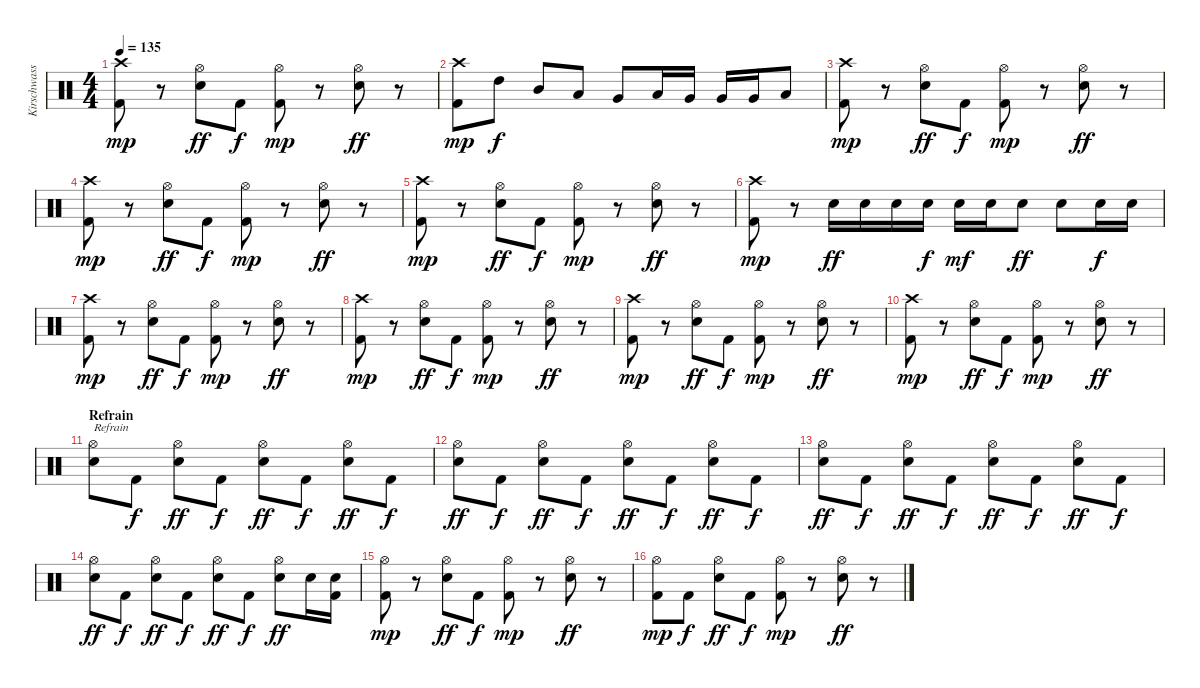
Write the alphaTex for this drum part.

\track ("Kirschwasserkönig" "Kirschwass") {instrument percussion}
\staff {score}
\articulation defaults
\ts (4 4)
\tempo 135
\clef neutral
\ks c
("Crash high (hit)" "Kick (hit) 2").8{dy mp} r.8 ("Hi-Hat (open)" "Electric Snare (hit)").8{dy ff} "Kick (hit) 2".8{dy f} ("Hi-Hat (open)" "Kick (hit) 2").8{dy mp} r.8 ("Hi-Hat (open)" "Electric Snare (hit)").8{dy ff} r.8 |
("Crash high (hit)" "Kick (hit) 2").8{dy mp} "High Tom (hit)".8{dy f volume 16} "Mid Tom (hit)".8 "Low Tom (hit)".8 "Very Low Tom (hit)".8 "Low Tom (hit)".16 "Very Low Tom (hit)".16 "Very Low Tom (hit)".16 "Very Low Tom (hit)".16 "Low Floor Tom (hit)".8 |
("Crash high (hit)" "Kick (hit) 2").8{dy mp volume 13} r.8 ("Hi-Hat (open)" "Electric Snare (hit)").8{dy ff} "Kick (hit) 2".8{dy f} ("Hi-Hat (open)" "Kick (hit) 2").8{dy mp} r.8 ("Hi-Hat (open)" "Electric Snare (hit)").8{dy ff} r.8 |
("Crash high (hit)" "Kick (hit) 2").8{dy mp} r.8 ("Hi-Hat (open)" "Electric Snare (hit)").8{dy ff} "Kick (hit) 2".8{dy f} ("Hi-Hat (open)" "Kick (hit) 2").8{dy mp} r.8 ("Hi-Hat (open)" "Electric Snare (hit)").8{dy ff} r.8 |
("Crash high (hit)" "Kick (hit) 2").8{dy mp} r.8 ("Hi-Hat (open)" "Electric Snare (hit)").8{dy ff} "Kick (hit) 2".8{dy f} ("Hi-Hat (open)" "Kick (hit) 2").8{dy mp} r.8 ("Hi-Hat (open)" "Electric Snare (hit)").8{dy ff} r.8 |
("Crash high (hit)" "Kick (hit) 2").8{dy mp} r.8 "Electric Snare (hit)".16{dy ff} "Electric Snare (hit)".16 "Electric Snare (hit)".16 "Electric Snare (hit)".16{dy f} "Electric Snare (hit)".16{dy mf} "Electric Snare (hit)".16 "Electric Snare (hit)".8{dy ff} "Electric Snare (hit)".8 "Electric Snare (hit)".16{dy f} "Electric Snare (hit)".16 |
("Crash high (hit)" "Kick (hit) 2").8{dy mp} r.8 ("Hi-Hat (open)" "Electric Snare (hit)").8{dy ff} "Kick (hit) 2".8{dy f} ("Hi-Hat (open)" "Kick (hit) 2").8{dy mp} r.8 ("Hi-Hat (open)" "Electric Snare (hit)").8{dy ff} r.8 |
("Crash high (hit)" "Kick (hit) 2").8{dy mp} r.8 ("Hi-Hat (open)" "Electric Snare (hit)").8{dy ff} "Kick (hit) 2".8{dy f} ("Hi-Hat (open)" "Kick (hit) 2").8{dy mp} r.8 ("Hi-Hat (open)" "Electric Snare (hit)").8{dy ff} r.8 |
("Crash high (hit)" "Kick (hit) 2").8{dy mp} r.8 ("Hi-Hat (open)" "Electric Snare (hit)").8{dy ff} "Kick (hit) 2".8{dy f} ("Hi-Hat (open)" "Kick (hit) 2").8{dy mp} r.8 ("Hi-Hat (open)" "Electric Snare (hit)").8{dy ff} r.8 |
("Crash high (hit)" "Kick (hit) 2").8{dy mp} r.8 ("Hi-Hat (open)" "Electric Snare (hit)").8{dy ff} "Kick (hit) 2".8{dy f} ("Hi-Hat (open)" "Kick (hit) 2").8{dy mp} r.8 ("Hi-Hat (open)" "Electric Snare (hit)").8{dy ff} r.8 |
\section ("" "Refrain")
("Hi-Hat (open)" "Electric Snare (hit)").8{txt "Refrain" volume 15} "Kick (hit) 2".8{dy f} ("Hi-Hat (open)" "Electric Snare (hit)").8{dy ff} "Kick (hit) 2".8{dy f} ("Hi-Hat (open)" "Electric Snare (hit)").8{dy ff} "Kick (hit) 2".8{dy f} ("Hi-Hat (open)" "Electric Snare (hit)").8{dy ff} "Kick (hit) 2".8{dy f} |
("Hi-Hat (open)" "Electric Snare (hit)").8{dy ff} "Kick (hit) 2".8{dy f} ("Hi-Hat (open)" "Electric Snare (hit)").8{dy ff} "Kick (hit) 2".8{dy f} ("Hi-Hat (open)" "Electric Snare (hit)").8{dy ff} "Kick (hit) 2".8{dy f} ("Hi-Hat (open)" "Electric Snare (hit)").8{dy ff} "Kick (hit) 2".8{dy f} |
("Hi-Hat (open)" "Electric Snare (hit)").8{dy ff} "Kick (hit) 2".8{dy f} ("Hi-Hat (open)" "Electric Snare (hit)").8{dy ff} "Kick (hit) 2".8{dy f} ("Hi-Hat (open)" "Electric Snare (hit)").8{dy ff} "Kick (hit) 2".8{dy f} ("Hi-Hat (open)" "Electric Snare (hit)").8{dy ff} "Kick (hit) 2".8{dy f} |
("Hi-Hat (open)" "Electric Snare (hit)").8{dy ff} "Kick (hit) 2".8{dy f} ("Hi-Hat (open)" "Electric Snare (hit)").8{dy ff} "Kick (hit) 2".8{dy f} ("Hi-Hat (open)" "Electric Snare (hit)").8{dy ff} "Kick (hit) 2".8{dy f} ("Hi-Hat (open)" "Electric Snare (hit)").8{dy ff} "Electric Snare (hit)".16 ("Kick (hit) 2" "Electric Snare (hit)").16 |
("Hi-Hat (open)" "Kick (hit) 2").8{dy mp} r.8 ("Hi-Hat (open)" "Electric Snare (hit)").8{dy ff} "Kick (hit) 2".8{dy f} ("Hi-Hat (open)" "Kick (hit) 2").8{dy mp} r.8 ("Hi-Hat (open)" "Electric Snare (hit)").8{dy ff} r.8 |
("Hi-Hat (open)" "Kick (hit) 2").8{dy mp} "Kick (hit) 2".8{dy f} ("Hi-Hat (open)" "Electric Snare (hit)").8{dy ff} "Kick (hit) 2".8{dy f} ("Hi-Hat (open)" "Kick (hit) 2").8{dy mp} r.8 ("Hi-Hat (open)" "Electric Snare (hit)").8{dy ff} r.8
